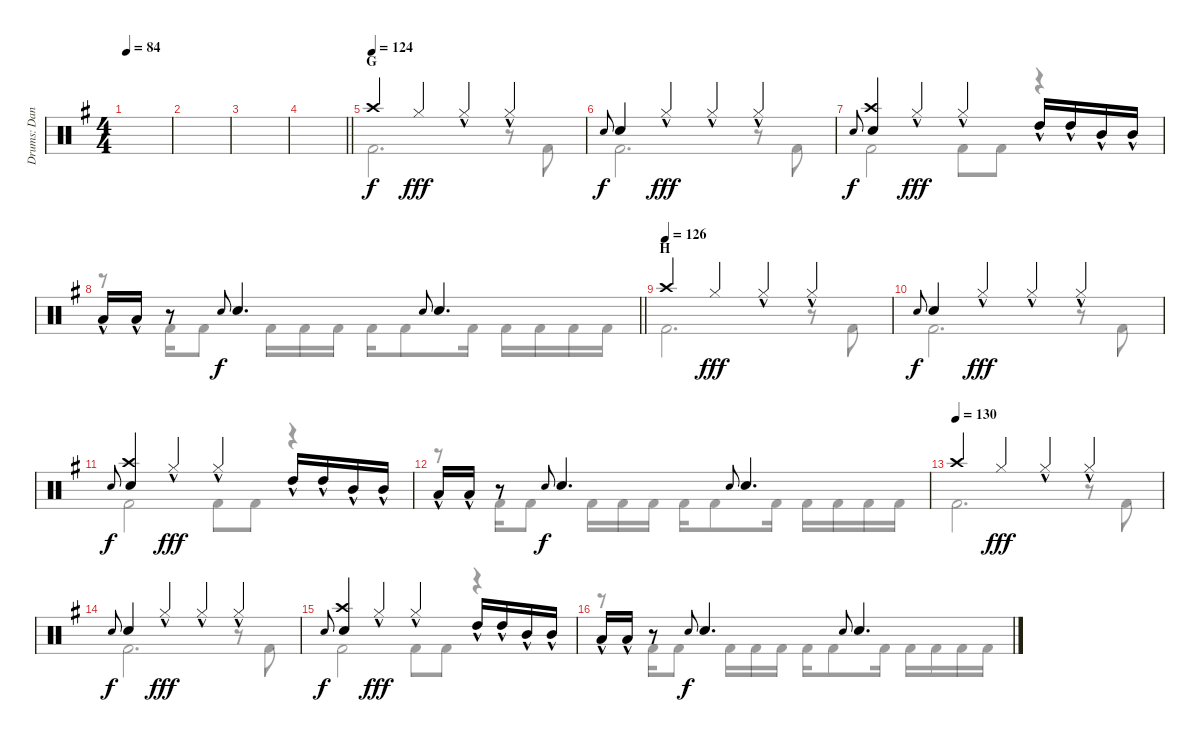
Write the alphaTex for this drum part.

\track ("Drums: Dana" "Drums: Dan") {instrument percussion}
\staff {score}
\articulation defaults
\voice
\ts (4 4)
\tempo 84
\clef neutral
\ks g
|
|
|
\barLineRight lightlight
|
\section ("" "G")
\tempo (124)
"Crash high (hit)".4 "Hi-Hat (closed)".4{dy fff} "Hi-Hat (closed)"{hac}.4 "Hi-Hat (closed)"{hac}.4 |
"Electric Snare (hit)".8{gr onbeat dy f} "Snare (hit) 2".4 "Hi-Hat (closed)"{hac}.4{dy fff} "Hi-Hat (closed)"{hac}.4 "Hi-Hat (closed)"{hac}.4 |
"Electric Snare (hit)".8{gr onbeat dy f} ("Crash high (hit)" "Snare (hit) 2").4 "Hi-Hat (closed)"{hac}.4{dy fff} "Hi-Hat (closed)"{hac}.4 "High Tom (hit)"{hac}.16 "High Tom (hit)"{hac}.16 "Mid Tom (hit)"{hac}.16 "Mid Tom (hit)"{hac}.16 |
\barLineRight lightlight "Low Tom (hit)"{hac}.16 "Low Tom (hit)"{hac}.16
r.8 "Electric Snare (hit)".8{gr onbeat dy f} "Snare (hit) 2".4{d} "Electric Snare (hit)".8{gr onbeat} "Snare (hit) 2".4{d} |
\section ("" "H")
\tempo (126)
"Crash high (hit)".4 "Hi-Hat (closed)".4{dy fff} "Hi-Hat (closed)"{hac}.4 "Hi-Hat (closed)"{hac}.4 |
"Electric Snare (hit)".8{gr onbeat dy f} "Snare (hit) 2".4 "Hi-Hat (closed)"{hac}.4{dy fff} "Hi-Hat (closed)"{hac}.4 "Hi-Hat (closed)"{hac}.4 |
"Electric Snare (hit)".8{gr onbeat dy f} ("Crash high (hit)" "Snare (hit) 2").4 "Hi-Hat (closed)"{hac}.4{dy fff} "Hi-Hat (closed)"{hac}.4 "High Tom (hit)"{hac}.16 "High Tom (hit)"{hac}.16 "Mid Tom (hit)"{hac}.16 "Mid Tom (hit)"{hac}.16 |
"Low Tom (hit)"{hac}.16 "Low Tom (hit)"{hac}.16 r.8 "Electric Snare (hit)".8{gr onbeat dy f} "Snare (hit) 2".4{d} "Electric Snare (hit)".8{gr onbeat} "Snare (hit) 2".4{d} |
\tempo (130)
"Crash high (hit)".4 "Hi-Hat (closed)".4{dy fff} "Hi-Hat (closed)"{hac}.4 "Hi-Hat (closed)"{hac}.4 |
"Electric Snare (hit)".8{gr onbeat dy f} "Snare (hit) 2".4 "Hi-Hat (closed)"{hac}.4{dy fff} "Hi-Hat (closed)"{hac}.4 "Hi-Hat (closed)"{hac}.4 |
"Electric Snare (hit)".8{gr onbeat dy f} ("Crash high (hit)" "Snare (hit) 2").4 "Hi-Hat (closed)"{hac}.4{dy fff} "Hi-Hat (closed)"{hac}.4 "High Tom (hit)"{hac}.16 "High Tom (hit)"{hac}.16 "Mid Tom (hit)"{hac}.16 "Mid Tom (hit)"{hac}.16 |
"Low Tom (hit)"{hac}.16 "Low Tom (hit)"{hac}.16 r.8 "Electric Snare (hit)".8{gr onbeat dy f} "Snare (hit) 2".4{d} "Electric Snare (hit)".8{gr onbeat} "Snare (hit) 2".4{d}
\voice
\clef neutral
\ottava regular
\simile none
\ks g
|
|
|
\barLineRight lightlight
|
"Kick (hit) 2".2{d} r.8 "Kick (hit) 2".8 |
"Kick (hit) 2".2{d} r.8 "Kick (hit) 2".8 |
"Kick (hit) 2".2 "Kick (hit) 2".8 "Kick (hit) 2".8 r.4 |
\barLineRight lightlight
r.8 "Kick (hit) 2".16 "Kick (hit) 2".8 "Kick (hit) 2".16 "Kick (hit) 2".16 "Kick (hit) 2".16 "Kick (hit) 2".16 "Kick (hit) 2".8 "Kick (hit) 2".16 "Kick (hit) 2".16 "Kick (hit) 2".16 "Kick (hit) 2".16 "Kick (hit) 2".16 |
"Kick (hit) 2".2{d} r.8 "Kick (hit) 2".8 |
"Kick (hit) 2".2{d} r.8 "Kick (hit) 2".8 |
"Kick (hit) 2".2 "Kick (hit) 2".8 "Kick (hit) 2".8 r.4 |
r.8 "Kick (hit) 2".16 "Kick (hit) 2".8 "Kick (hit) 2".16 "Kick (hit) 2".16 "Kick (hit) 2".16 "Kick (hit) 2".16 "Kick (hit) 2".8 "Kick (hit) 2".16 "Kick (hit) 2".16 "Kick (hit) 2".16 "Kick (hit) 2".16 "Kick (hit) 2".16 |
"Kick (hit) 2".2{d} r.8 "Kick (hit) 2".8 |
"Kick (hit) 2".2{d} r.8 "Kick (hit) 2".8 |
"Kick (hit) 2".2 "Kick (hit) 2".8 "Kick (hit) 2".8 r.4 |
r.8 "Kick (hit) 2".16 "Kick (hit) 2".8 "Kick (hit) 2".16 "Kick (hit) 2".16 "Kick (hit) 2".16 "Kick (hit) 2".16 "Kick (hit) 2".8 "Kick (hit) 2".16 "Kick (hit) 2".16 "Kick (hit) 2".16 "Kick (hit) 2".16 "Kick (hit) 2".16
